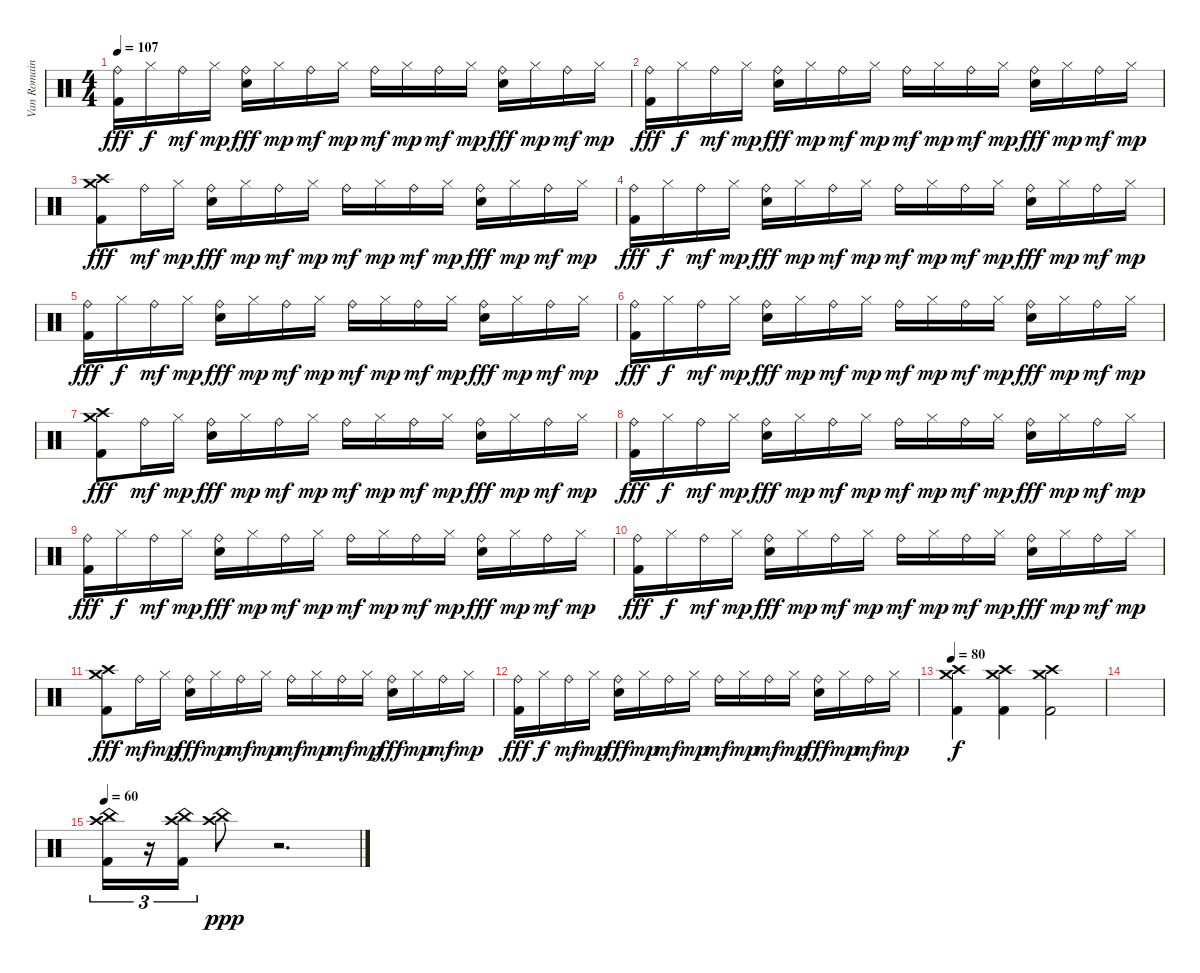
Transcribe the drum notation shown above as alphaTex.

\track ("Van Romaine" "Van Romain") {instrument percussion}
\staff {score}
\articulation defaults
\ts (4 4)
\tempo 107
\clef neutral
\ks c
("Ride (bell)" "Kick (hit) 2").16{dy fff} "Hi-Hat (closed)".16{dy f} "Ride (bell)".16{dy mf} "Hi-Hat (closed)".16{dy mp} ("Ride (bell)" "Electric Snare (hit)").16{dy fff} "Hi-Hat (closed)".16{dy mp} "Ride (bell)".16{dy mf} "Hi-Hat (closed)".16{dy mp} "Ride (bell)".16{dy mf} "Hi-Hat (closed)".16{dy mp} "Ride (bell)".16{dy mf} "Hi-Hat (closed)".16{dy mp} ("Ride (bell)" "Electric Snare (hit)").16{dy fff} "Hi-Hat (closed)".16{dy mp} "Ride (bell)".16{dy mf} "Hi-Hat (closed)".16{dy mp} |
("Ride (bell)" "Kick (hit) 2").16{dy fff} "Hi-Hat (closed)".16{dy f} "Ride (bell)".16{dy mf} "Hi-Hat (closed)".16{dy mp} ("Ride (bell)" "Electric Snare (hit)").16{dy fff} "Hi-Hat (closed)".16{dy mp} "Ride (bell)".16{dy mf} "Hi-Hat (closed)".16{dy mp} "Ride (bell)".16{dy mf} "Hi-Hat (closed)".16{dy mp} "Ride (bell)".16{dy mf} "Hi-Hat (closed)".16{dy mp} ("Ride (bell)" "Electric Snare (hit)").16{dy fff} "Hi-Hat (closed)".16{dy mp} "Ride (bell)".16{dy mf} "Hi-Hat (closed)".16{dy mp} |
("Crash medium (hit)" "Crash high (hit)" "Kick (hit) 2").8{dy fff} "Ride (bell)".16{dy mf} "Hi-Hat (closed)".16{dy mp} ("Ride (bell)" "Electric Snare (hit)").16{dy fff} "Hi-Hat (closed)".16{dy mp} "Ride (bell)".16{dy mf} "Hi-Hat (closed)".16{dy mp} "Ride (bell)".16{dy mf} "Hi-Hat (closed)".16{dy mp} "Ride (bell)".16{dy mf} "Hi-Hat (closed)".16{dy mp} ("Ride (bell)" "Electric Snare (hit)").16{dy fff} "Hi-Hat (closed)".16{dy mp} "Ride (bell)".16{dy mf} "Hi-Hat (closed)".16{dy mp} |
("Ride (bell)" "Kick (hit) 2").16{dy fff} "Hi-Hat (closed)".16{dy f} "Ride (bell)".16{dy mf} "Hi-Hat (closed)".16{dy mp} ("Ride (bell)" "Electric Snare (hit)").16{dy fff} "Hi-Hat (closed)".16{dy mp} "Ride (bell)".16{dy mf} "Hi-Hat (closed)".16{dy mp} "Ride (bell)".16{dy mf} "Hi-Hat (closed)".16{dy mp} "Ride (bell)".16{dy mf} "Hi-Hat (closed)".16{dy mp} ("Ride (bell)" "Electric Snare (hit)").16{dy fff} "Hi-Hat (closed)".16{dy mp} "Ride (bell)".16{dy mf} "Hi-Hat (closed)".16{dy mp} |
("Ride (bell)" "Kick (hit) 2").16{dy fff} "Hi-Hat (closed)".16{dy f} "Ride (bell)".16{dy mf} "Hi-Hat (closed)".16{dy mp} ("Ride (bell)" "Electric Snare (hit)").16{dy fff} "Hi-Hat (closed)".16{dy mp} "Ride (bell)".16{dy mf} "Hi-Hat (closed)".16{dy mp} "Ride (bell)".16{dy mf} "Hi-Hat (closed)".16{dy mp} "Ride (bell)".16{dy mf} "Hi-Hat (closed)".16{dy mp} ("Ride (bell)" "Electric Snare (hit)").16{dy fff} "Hi-Hat (closed)".16{dy mp} "Ride (bell)".16{dy mf} "Hi-Hat (closed)".16{dy mp} |
("Ride (bell)" "Kick (hit) 2").16{dy fff} "Hi-Hat (closed)".16{dy f} "Ride (bell)".16{dy mf} "Hi-Hat (closed)".16{dy mp} ("Ride (bell)" "Electric Snare (hit)").16{dy fff} "Hi-Hat (closed)".16{dy mp} "Ride (bell)".16{dy mf} "Hi-Hat (closed)".16{dy mp} "Ride (bell)".16{dy mf} "Hi-Hat (closed)".16{dy mp} "Ride (bell)".16{dy mf} "Hi-Hat (closed)".16{dy mp} ("Ride (bell)" "Electric Snare (hit)").16{dy fff} "Hi-Hat (closed)".16{dy mp} "Ride (bell)".16{dy mf} "Hi-Hat (closed)".16{dy mp} |
("Crash medium (hit)" "Crash high (hit)" "Kick (hit) 2").8{dy fff} "Ride (bell)".16{dy mf} "Hi-Hat (closed)".16{dy mp} ("Ride (bell)" "Electric Snare (hit)").16{dy fff} "Hi-Hat (closed)".16{dy mp} "Ride (bell)".16{dy mf} "Hi-Hat (closed)".16{dy mp} "Ride (bell)".16{dy mf} "Hi-Hat (closed)".16{dy mp} "Ride (bell)".16{dy mf} "Hi-Hat (closed)".16{dy mp} ("Ride (bell)" "Electric Snare (hit)").16{dy fff} "Hi-Hat (closed)".16{dy mp} "Ride (bell)".16{dy mf} "Hi-Hat (closed)".16{dy mp} |
("Ride (bell)" "Kick (hit) 2").16{dy fff} "Hi-Hat (closed)".16{dy f} "Ride (bell)".16{dy mf} "Hi-Hat (closed)".16{dy mp} ("Ride (bell)" "Electric Snare (hit)").16{dy fff} "Hi-Hat (closed)".16{dy mp} "Ride (bell)".16{dy mf} "Hi-Hat (closed)".16{dy mp} "Ride (bell)".16{dy mf} "Hi-Hat (closed)".16{dy mp} "Ride (bell)".16{dy mf} "Hi-Hat (closed)".16{dy mp} ("Ride (bell)" "Electric Snare (hit)").16{dy fff} "Hi-Hat (closed)".16{dy mp} "Ride (bell)".16{dy mf} "Hi-Hat (closed)".16{dy mp} |
("Ride (bell)" "Kick (hit) 2").16{dy fff} "Hi-Hat (closed)".16{dy f} "Ride (bell)".16{dy mf} "Hi-Hat (closed)".16{dy mp} ("Ride (bell)" "Electric Snare (hit)").16{dy fff} "Hi-Hat (closed)".16{dy mp} "Ride (bell)".16{dy mf} "Hi-Hat (closed)".16{dy mp} "Ride (bell)".16{dy mf} "Hi-Hat (closed)".16{dy mp} "Ride (bell)".16{dy mf} "Hi-Hat (closed)".16{dy mp} ("Ride (bell)" "Electric Snare (hit)").16{dy fff} "Hi-Hat (closed)".16{dy mp} "Ride (bell)".16{dy mf} "Hi-Hat (closed)".16{dy mp} |
("Ride (bell)" "Kick (hit) 2").16{dy fff} "Hi-Hat (closed)".16{dy f} "Ride (bell)".16{dy mf} "Hi-Hat (closed)".16{dy mp} ("Ride (bell)" "Electric Snare (hit)").16{dy fff} "Hi-Hat (closed)".16{dy mp} "Ride (bell)".16{dy mf} "Hi-Hat (closed)".16{dy mp} "Ride (bell)".16{dy mf} "Hi-Hat (closed)".16{dy mp} "Ride (bell)".16{dy mf} "Hi-Hat (closed)".16{dy mp} ("Ride (bell)" "Electric Snare (hit)").16{dy fff} "Hi-Hat (closed)".16{dy mp} "Ride (bell)".16{dy mf} "Hi-Hat (closed)".16{dy mp} |
("Crash medium (hit)" "Crash high (hit)" "Kick (hit) 2").8{dy fff} "Ride (bell)".16{dy mf} "Hi-Hat (closed)".16{dy mp} ("Ride (bell)" "Electric Snare (hit)").16{dy fff} "Hi-Hat (closed)".16{dy mp} "Ride (bell)".16{dy mf} "Hi-Hat (closed)".16{dy mp} "Ride (bell)".16{dy mf} "Hi-Hat (closed)".16{dy mp} "Ride (bell)".16{dy mf} "Hi-Hat (closed)".16{dy mp} ("Ride (bell)" "Electric Snare (hit)").16{dy fff} "Hi-Hat (closed)".16{dy mp} "Ride (bell)".16{dy mf} "Hi-Hat (closed)".16{dy mp} |
("Ride (bell)" "Kick (hit) 2").16{dy fff} "Hi-Hat (closed)".16{dy f} "Ride (bell)".16{dy mf} "Hi-Hat (closed)".16{dy mp} ("Ride (bell)" "Electric Snare (hit)").16{dy fff} "Hi-Hat (closed)".16{dy mp} "Ride (bell)".16{dy mf} "Hi-Hat (closed)".16{dy mp} "Ride (bell)".16{dy mf} "Hi-Hat (closed)".16{dy mp} "Ride (bell)".16{dy mf} "Hi-Hat (closed)".16{dy mp} ("Ride (bell)" "Electric Snare (hit)").16{dy fff} "Hi-Hat (closed)".16{dy mp} "Ride (bell)".16{dy mf} "Hi-Hat (closed)".16{dy mp} |
\tempo 80
("Crash high (hit)" "Crash medium (hit)" "Kick (hit) 2").4{dy f} ("Crash high (hit)" "Crash medium (hit)" "Kick (hit) 2").4 ("Crash high (hit)" "Crash medium (hit)" "Kick (hit) 2").2 |
|
\tempo 60
("Crash high (hit)" "China (hit)" "Kick (hit) 2").16{tu (3 2)} r.16{tu (3 2)} ("Crash high (hit)" "China (hit)" "Kick (hit) 2").16{tu (3 2)} ("Crash high (hit)" "China (hit)").8{dy ppp} r.2{d}
